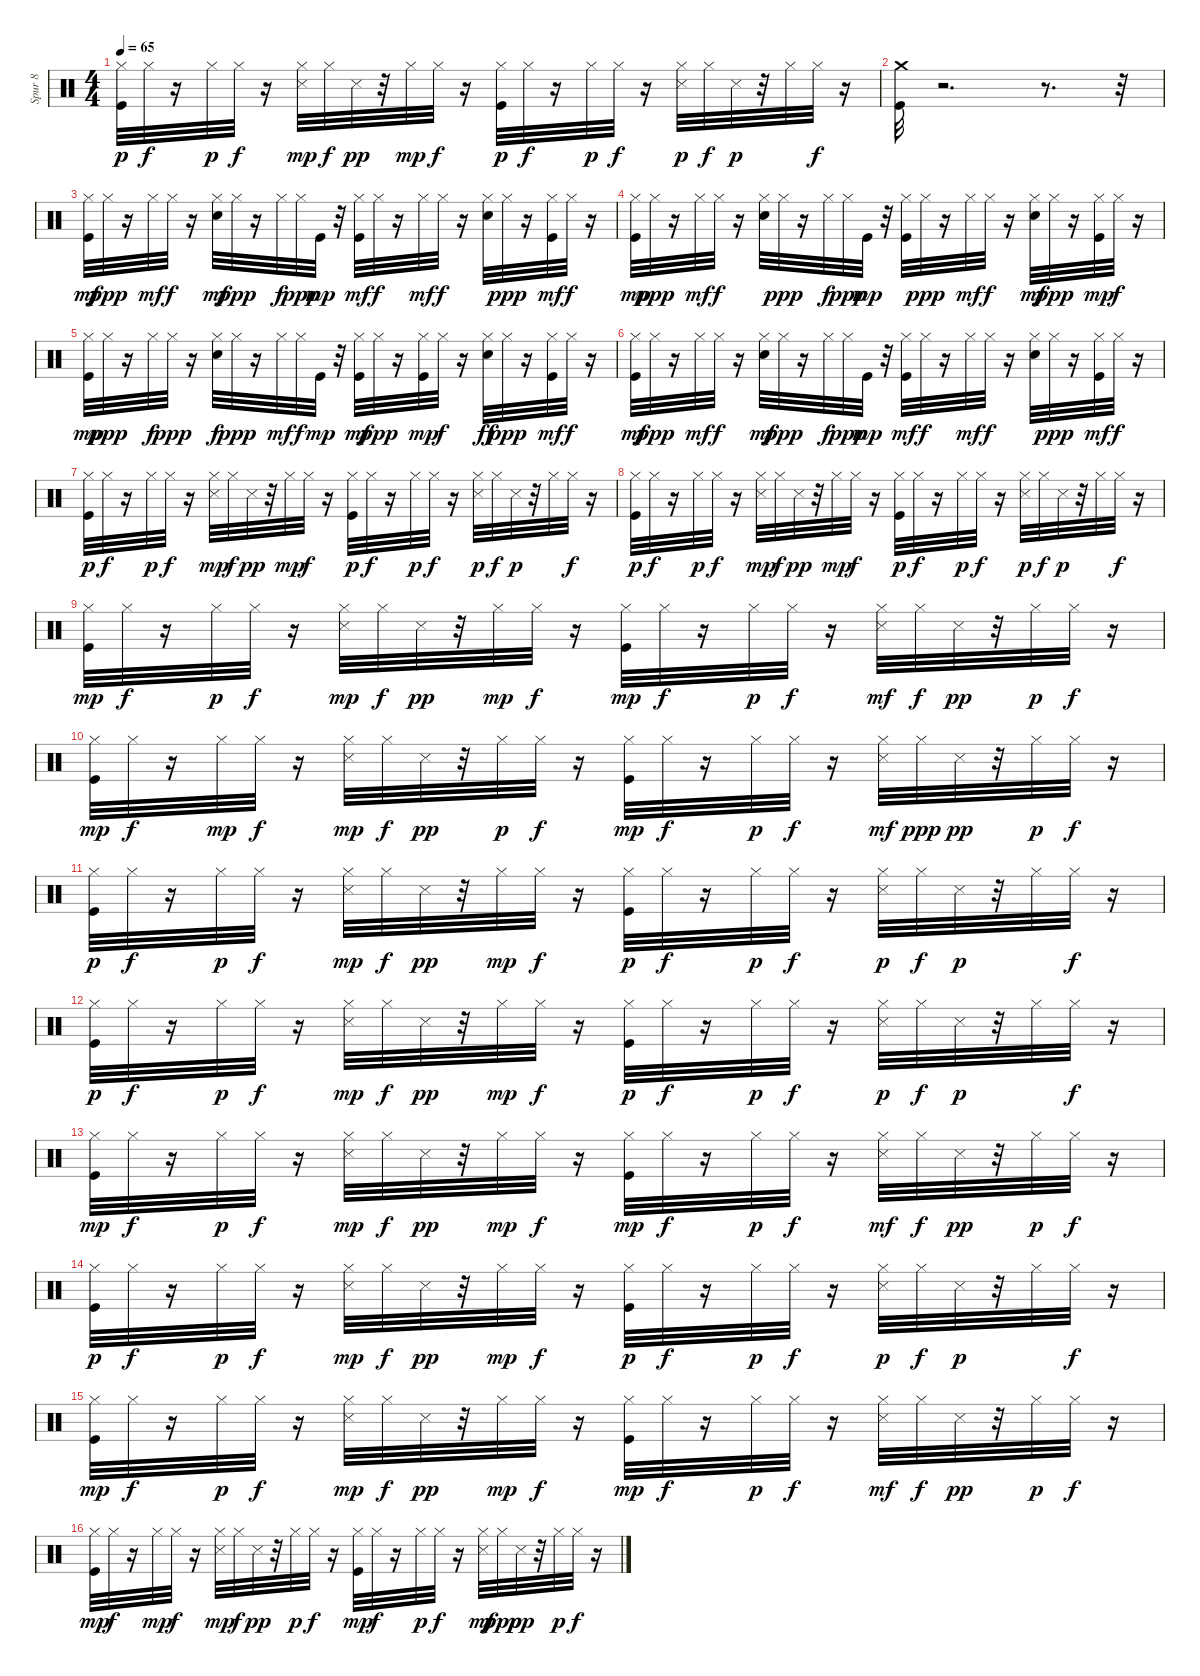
\track ("Spur 8" "Spur 8") {instrument percussion}
\staff {score}
\articulation defaults
\ts (4 4)
\tempo 65
\clef neutral
\ks c
("Kick (hit)" "Hi-Hat (closed)").32{dy p} "Hi-Hat (closed)".32{dy f} r.16 "Hi-Hat (closed)".32{dy p} "Hi-Hat (closed)".32{dy f} r.16 ("Hi-Hat (closed)" "Snare (side stick) 3").32{dy mp} "Hi-Hat (closed)".32{dy f} "Snare (side stick) 3".32{dy pp} r.32 "Hi-Hat (closed)".32{dy mp} "Hi-Hat (closed)".32{dy f} r.16 ("Kick (hit)" "Hi-Hat (closed)").32{dy p} "Hi-Hat (closed)".32{dy f} r.16 "Hi-Hat (closed)".32{dy p} "Hi-Hat (closed)".32{dy f} r.16 ("Hi-Hat (closed)" "Snare (side stick) 3").32{dy p} "Hi-Hat (closed)".32{dy f} "Snare (side stick) 3".32{dy p} r.32 "Hi-Hat (closed)".32 "Hi-Hat (closed)".32{dy f} r.16 |
("Kick (hit)" "Crash medium (hit)").32 r.2{d} r.8{d} r.32 |
("Kick (hit)" "Hi-Hat (closed)").32{dy mf} "Hi-Hat (closed)".32{dy ppp} r.16 "Hi-Hat (closed)".32{dy mf} "Hi-Hat (closed)".32{dy f} r.16 ("Metronome (bell)" "Hi-Hat (closed)").32{dy mf} "Hi-Hat (closed)".32{dy ppp} r.16 "Hi-Hat (closed)".32{dy f} "Hi-Hat (closed)".32{dy ppp} "Kick (hit)".32{dy mp} r.32 ("Kick (hit)" "Hi-Hat (closed)").32{dy mf} "Hi-Hat (closed)".32{dy f} r.16 "Hi-Hat (closed)".32{dy mf} "Hi-Hat (closed)".32{dy f} r.16 ("Metronome (bell)" "Hi-Hat (closed)").32 "Hi-Hat (closed)".32{dy ppp} r.16 ("Kick (hit)" "Hi-Hat (closed)").32{dy mf} "Hi-Hat (closed)".32{dy f} r.16 |
("Kick (hit)" "Hi-Hat (closed)").32{dy mp} "Hi-Hat (closed)".32{dy ppp} r.16 "Hi-Hat (closed)".32{dy mf} "Hi-Hat (closed)".32{dy f} r.16 ("Metronome (bell)" "Hi-Hat (closed)").32 "Hi-Hat (closed)".32{dy ppp} r.16 "Hi-Hat (closed)".32{dy f} "Hi-Hat (closed)".32{dy ppp} "Kick (hit)".32{dy mp} r.32 ("Kick (hit)" "Hi-Hat (closed)").32 "Hi-Hat (closed)".32{dy ppp} r.16 "Hi-Hat (closed)".32{dy mf} "Hi-Hat (closed)".32{dy f} r.16 ("Metronome (bell)" "Hi-Hat (closed)").32{dy mf} "Hi-Hat (closed)".32{dy ppp} r.16 ("Kick (hit)" "Hi-Hat (closed)").32{dy mp} "Hi-Hat (closed)".32{dy f} r.16 |
("Kick (hit)" "Hi-Hat (closed)").32{dy mp} "Hi-Hat (closed)".32{dy ppp} r.16 "Hi-Hat (closed)".32{dy f} "Hi-Hat (closed)".32{dy ppp} r.16 ("Metronome (bell)" "Hi-Hat (closed)").32{dy f} "Hi-Hat (closed)".32{dy ppp} r.16 "Hi-Hat (closed)".32{dy mf} "Hi-Hat (closed)".32{dy f} "Kick (hit)".32{dy mp} r.32 ("Kick (hit)" "Hi-Hat (closed)").32{dy mf} "Hi-Hat (closed)".32{dy ppp} r.16 ("Kick (hit)" "Hi-Hat (closed)").32{dy mp} "Hi-Hat (closed)".32{dy f} r.16 ("Metronome (bell)" "Hi-Hat (closed)").32{dy ff} "Hi-Hat (closed)".32{dy ppp} r.16 ("Kick (hit)" "Hi-Hat (closed)").32{dy mf} "Hi-Hat (closed)".32{dy f} r.16 |
("Kick (hit)" "Hi-Hat (closed)").32{dy mf} "Hi-Hat (closed)".32{dy ppp} r.16 "Hi-Hat (closed)".32{dy mf} "Hi-Hat (closed)".32{dy f} r.16 ("Metronome (bell)" "Hi-Hat (closed)").32{dy mf} "Hi-Hat (closed)".32{dy ppp} r.16 "Hi-Hat (closed)".32{dy f} "Hi-Hat (closed)".32{dy ppp} "Kick (hit)".32{dy mp} r.32 ("Kick (hit)" "Hi-Hat (closed)").32{dy mf} "Hi-Hat (closed)".32{dy f} r.16 "Hi-Hat (closed)".32{dy mf} "Hi-Hat (closed)".32{dy f} r.16 ("Metronome (bell)" "Hi-Hat (closed)").32 "Hi-Hat (closed)".32{dy ppp} r.16 ("Kick (hit)" "Hi-Hat (closed)").32{dy mf} "Hi-Hat (closed)".32{dy f} r.16 |
("Kick (hit)" "Hi-Hat (closed)").32{dy p} "Hi-Hat (closed)".32{dy f} r.16 "Hi-Hat (closed)".32{dy p} "Hi-Hat (closed)".32{dy f} r.16 ("Hi-Hat (closed)" "Snare (side stick) 3").32{dy mp} "Hi-Hat (closed)".32{dy f} "Snare (side stick) 3".32{dy pp} r.32 "Hi-Hat (closed)".32{dy mp} "Hi-Hat (closed)".32{dy f} r.16 ("Kick (hit)" "Hi-Hat (closed)").32{dy p} "Hi-Hat (closed)".32{dy f} r.16 "Hi-Hat (closed)".32{dy p} "Hi-Hat (closed)".32{dy f} r.16 ("Hi-Hat (closed)" "Snare (side stick) 3").32{dy p} "Hi-Hat (closed)".32{dy f} "Snare (side stick) 3".32{dy p} r.32 "Hi-Hat (closed)".32 "Hi-Hat (closed)".32{dy f} r.16 |
("Kick (hit)" "Hi-Hat (closed)").32{dy p} "Hi-Hat (closed)".32{dy f} r.16 "Hi-Hat (closed)".32{dy p} "Hi-Hat (closed)".32{dy f} r.16 ("Hi-Hat (closed)" "Snare (side stick) 3").32{dy mp} "Hi-Hat (closed)".32{dy f} "Snare (side stick) 3".32{dy pp} r.32 "Hi-Hat (closed)".32{dy mp} "Hi-Hat (closed)".32{dy f} r.16 ("Kick (hit)" "Hi-Hat (closed)").32{dy p} "Hi-Hat (closed)".32{dy f} r.16 "Hi-Hat (closed)".32{dy p} "Hi-Hat (closed)".32{dy f} r.16 ("Hi-Hat (closed)" "Snare (side stick) 3").32{dy p} "Hi-Hat (closed)".32{dy f} "Snare (side stick) 3".32{dy p} r.32 "Hi-Hat (closed)".32 "Hi-Hat (closed)".32{dy f} r.16 |
("Kick (hit)" "Hi-Hat (closed)").32{dy mp} "Hi-Hat (closed)".32{dy f} r.16 "Hi-Hat (closed)".32{dy p} "Hi-Hat (closed)".32{dy f} r.16 ("Hi-Hat (closed)" "Snare (side stick) 3").32{dy mp} "Hi-Hat (closed)".32{dy f} "Snare (side stick) 3".32{dy pp} r.32 "Hi-Hat (closed)".32{dy mp} "Hi-Hat (closed)".32{dy f} r.16 ("Kick (hit)" "Hi-Hat (closed)").32{dy mp} "Hi-Hat (closed)".32{dy f} r.16 "Hi-Hat (closed)".32{dy p} "Hi-Hat (closed)".32{dy f} r.16 ("Hi-Hat (closed)" "Snare (side stick) 3").32{dy mf} "Hi-Hat (closed)".32{dy f} "Snare (side stick) 3".32{dy pp} r.32 "Hi-Hat (closed)".32{dy p} "Hi-Hat (closed)".32{dy f} r.16 |
("Kick (hit)" "Hi-Hat (closed)").32{dy mp} "Hi-Hat (closed)".32{dy f} r.16 "Hi-Hat (closed)".32{dy mp} "Hi-Hat (closed)".32{dy f} r.16 ("Hi-Hat (closed)" "Snare (side stick) 3").32{dy mp} "Hi-Hat (closed)".32{dy f} "Snare (side stick) 3".32{dy pp} r.32 "Hi-Hat (closed)".32{dy p} "Hi-Hat (closed)".32{dy f} r.16 ("Kick (hit)" "Hi-Hat (closed)").32{dy mp} "Hi-Hat (closed)".32{dy f} r.16 "Hi-Hat (closed)".32{dy p} "Hi-Hat (closed)".32{dy f} r.16 ("Hi-Hat (closed)" "Snare (side stick) 3").32{dy mf} "Hi-Hat (closed)".32{dy ppp} "Snare (side stick) 3".32{dy pp} r.32 "Hi-Hat (closed)".32{dy p} "Hi-Hat (closed)".32{dy f} r.16 |
("Kick (hit)" "Hi-Hat (closed)").32{dy p} "Hi-Hat (closed)".32{dy f} r.16 "Hi-Hat (closed)".32{dy p} "Hi-Hat (closed)".32{dy f} r.16 ("Hi-Hat (closed)" "Snare (side stick) 3").32{dy mp} "Hi-Hat (closed)".32{dy f} "Snare (side stick) 3".32{dy pp} r.32 "Hi-Hat (closed)".32{dy mp} "Hi-Hat (closed)".32{dy f} r.16 ("Kick (hit)" "Hi-Hat (closed)").32{dy p} "Hi-Hat (closed)".32{dy f} r.16 "Hi-Hat (closed)".32{dy p} "Hi-Hat (closed)".32{dy f} r.16 ("Hi-Hat (closed)" "Snare (side stick) 3").32{dy p} "Hi-Hat (closed)".32{dy f} "Snare (side stick) 3".32{dy p} r.32 "Hi-Hat (closed)".32 "Hi-Hat (closed)".32{dy f} r.16 |
("Kick (hit)" "Hi-Hat (closed)").32{dy p} "Hi-Hat (closed)".32{dy f} r.16 "Hi-Hat (closed)".32{dy p} "Hi-Hat (closed)".32{dy f} r.16 ("Hi-Hat (closed)" "Snare (side stick) 3").32{dy mp} "Hi-Hat (closed)".32{dy f} "Snare (side stick) 3".32{dy pp} r.32 "Hi-Hat (closed)".32{dy mp} "Hi-Hat (closed)".32{dy f} r.16 ("Kick (hit)" "Hi-Hat (closed)").32{dy p} "Hi-Hat (closed)".32{dy f} r.16 "Hi-Hat (closed)".32{dy p} "Hi-Hat (closed)".32{dy f} r.16 ("Hi-Hat (closed)" "Snare (side stick) 3").32{dy p} "Hi-Hat (closed)".32{dy f} "Snare (side stick) 3".32{dy p} r.32 "Hi-Hat (closed)".32 "Hi-Hat (closed)".32{dy f} r.16 |
("Kick (hit)" "Hi-Hat (closed)").32{dy mp} "Hi-Hat (closed)".32{dy f} r.16 "Hi-Hat (closed)".32{dy p} "Hi-Hat (closed)".32{dy f} r.16 ("Hi-Hat (closed)" "Snare (side stick) 3").32{dy mp} "Hi-Hat (closed)".32{dy f} "Snare (side stick) 3".32{dy pp} r.32 "Hi-Hat (closed)".32{dy mp} "Hi-Hat (closed)".32{dy f} r.16 ("Kick (hit)" "Hi-Hat (closed)").32{dy mp} "Hi-Hat (closed)".32{dy f} r.16 "Hi-Hat (closed)".32{dy p} "Hi-Hat (closed)".32{dy f} r.16 ("Hi-Hat (closed)" "Snare (side stick) 3").32{dy mf} "Hi-Hat (closed)".32{dy f} "Snare (side stick) 3".32{dy pp} r.32 "Hi-Hat (closed)".32{dy p} "Hi-Hat (closed)".32{dy f} r.16 |
("Kick (hit)" "Hi-Hat (closed)").32{dy p} "Hi-Hat (closed)".32{dy f} r.16 "Hi-Hat (closed)".32{dy p} "Hi-Hat (closed)".32{dy f} r.16 ("Hi-Hat (closed)" "Snare (side stick) 3").32{dy mp} "Hi-Hat (closed)".32{dy f} "Snare (side stick) 3".32{dy pp} r.32 "Hi-Hat (closed)".32{dy mp} "Hi-Hat (closed)".32{dy f} r.16 ("Kick (hit)" "Hi-Hat (closed)").32{dy p} "Hi-Hat (closed)".32{dy f} r.16 "Hi-Hat (closed)".32{dy p} "Hi-Hat (closed)".32{dy f} r.16 ("Hi-Hat (closed)" "Snare (side stick) 3").32{dy p} "Hi-Hat (closed)".32{dy f} "Snare (side stick) 3".32{dy p} r.32 "Hi-Hat (closed)".32 "Hi-Hat (closed)".32{dy f} r.16 |
("Kick (hit)" "Hi-Hat (closed)").32{dy mp} "Hi-Hat (closed)".32{dy f} r.16 "Hi-Hat (closed)".32{dy p} "Hi-Hat (closed)".32{dy f} r.16 ("Hi-Hat (closed)" "Snare (side stick) 3").32{dy mp} "Hi-Hat (closed)".32{dy f} "Snare (side stick) 3".32{dy pp} r.32 "Hi-Hat (closed)".32{dy mp} "Hi-Hat (closed)".32{dy f} r.16 ("Kick (hit)" "Hi-Hat (closed)").32{dy mp} "Hi-Hat (closed)".32{dy f} r.16 "Hi-Hat (closed)".32{dy p} "Hi-Hat (closed)".32{dy f} r.16 ("Hi-Hat (closed)" "Snare (side stick) 3").32{dy mf} "Hi-Hat (closed)".32{dy f} "Snare (side stick) 3".32{dy pp} r.32 "Hi-Hat (closed)".32{dy p} "Hi-Hat (closed)".32{dy f} r.16 |
("Kick (hit)" "Hi-Hat (closed)").32{dy mp} "Hi-Hat (closed)".32{dy f} r.16 "Hi-Hat (closed)".32{dy mp} "Hi-Hat (closed)".32{dy f} r.16 ("Hi-Hat (closed)" "Snare (side stick) 3").32{dy mp} "Hi-Hat (closed)".32{dy f} "Snare (side stick) 3".32{dy pp} r.32 "Hi-Hat (closed)".32{dy p} "Hi-Hat (closed)".32{dy f} r.16 ("Kick (hit)" "Hi-Hat (closed)").32{dy mp} "Hi-Hat (closed)".32{dy f} r.16 "Hi-Hat (closed)".32{dy p} "Hi-Hat (closed)".32{dy f} r.16 ("Hi-Hat (closed)" "Snare (side stick) 3").32{dy mf} "Hi-Hat (closed)".32{dy ppp} "Snare (side stick) 3".32{dy pp} r.32 "Hi-Hat (closed)".32{dy p} "Hi-Hat (closed)".32{dy f} r.16
